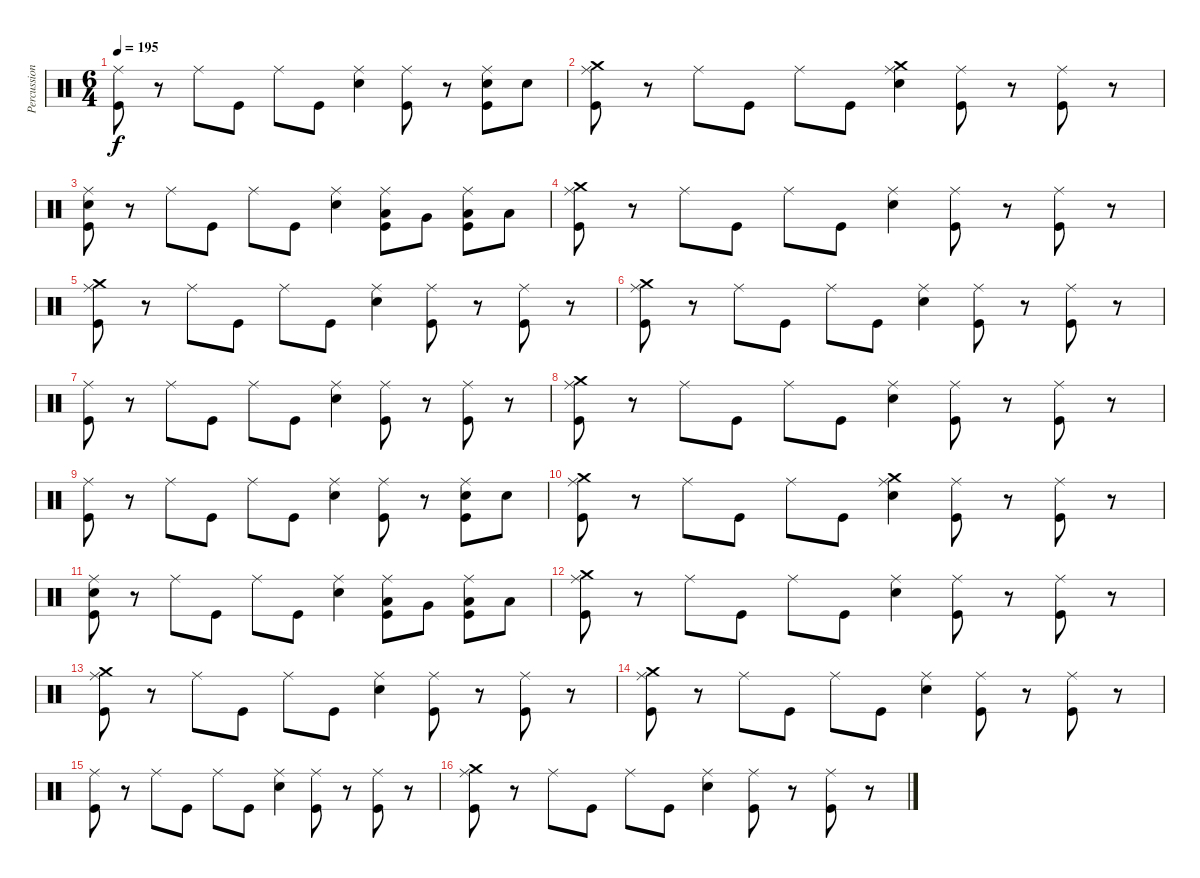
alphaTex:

\track ("Percussion" "Percussion") {instrument percussion}
\staff {score}
\articulation defaults
\ts (6 4)
\tempo 195
\clef neutral
\ks c
("Ride (middle)" "Kick (hit)").8{dy f} r.8 "Ride (middle)".8 "Kick (hit)".8 "Ride (middle)".8 "Kick (hit)".8 ("Ride (middle)" "Electric Snare (hit)").4 ("Ride (middle)" "Kick (hit)").8 r.8 ("Ride (middle)" "Electric Snare (hit)" "Kick (hit)").8 "Electric Snare (hit)".8 |
("Crash medium (hit)" "Ride (middle)" "Kick (hit)").8 r.8 "Ride (middle)".8 "Kick (hit)".8 "Ride (middle)".8 "Kick (hit)".8 ("Crash medium (hit)" "Ride (middle)" "Electric Snare (hit)").4 ("Ride (middle)" "Kick (hit)").8 r.8 ("Ride (middle)" "Kick (hit)").8 r.8 |
("Snare (hit)" "Ride (middle)" "Kick (hit)").8 r.8 "Ride (middle)".8 "Kick (hit)".8 "Ride (middle)".8 "Kick (hit)".8 ("Ride (middle)" "Electric Snare (hit)").4 ("Low Tom (hit)" "Ride (middle)" "Kick (hit)").8 "Very Low Tom (hit)".8 ("Low Floor Tom (hit)" "Ride (middle)" "Kick (hit)").8 "Low Floor Tom (hit)".8 |
("Crash medium (hit)" "Ride (middle)" "Kick (hit)").8 r.8 "Ride (middle)".8 "Kick (hit)".8 "Ride (middle)".8 "Kick (hit)".8 ("Ride (middle)" "Electric Snare (hit)").4 ("Ride (middle)" "Kick (hit)").8 r.8 ("Ride (middle)" "Kick (hit)").8 r.8 |
("Crash medium (hit)" "Ride (middle)" "Kick (hit)").8 r.8 "Ride (middle)".8 "Kick (hit)".8 "Ride (middle)".8 "Kick (hit)".8 ("Ride (middle)" "Electric Snare (hit)").4 ("Ride (middle)" "Kick (hit)").8 r.8 ("Ride (middle)" "Kick (hit)").8 r.8 |
("Crash medium (hit)" "Ride (middle)" "Kick (hit)").8 r.8 "Ride (middle)".8 "Kick (hit)".8 "Ride (middle)".8 "Kick (hit)".8 ("Ride (middle)" "Electric Snare (hit)").4 ("Ride (middle)" "Kick (hit)").8 r.8 ("Ride (middle)" "Kick (hit)").8 r.8 |
("Ride (middle)" "Kick (hit)").8 r.8 "Ride (middle)".8 "Kick (hit)".8 "Ride (middle)".8 "Kick (hit)".8 ("Ride (middle)" "Electric Snare (hit)").4 ("Ride (middle)" "Kick (hit)").8 r.8 ("Ride (middle)" "Kick (hit)").8 r.8 |
("Crash medium (hit)" "Ride (middle)" "Kick (hit)").8 r.8 "Ride (middle)".8 "Kick (hit)".8 "Ride (middle)".8 "Kick (hit)".8 ("Ride (middle)" "Electric Snare (hit)").4 ("Ride (middle)" "Kick (hit)").8 r.8 ("Ride (middle)" "Kick (hit)").8 r.8 |
("Ride (middle)" "Kick (hit)").8 r.8 "Ride (middle)".8 "Kick (hit)".8 "Ride (middle)".8 "Kick (hit)".8 ("Ride (middle)" "Electric Snare (hit)").4 ("Ride (middle)" "Kick (hit)").8 r.8 ("Ride (middle)" "Electric Snare (hit)" "Kick (hit)").8 "Electric Snare (hit)".8 |
("Crash medium (hit)" "Ride (middle)" "Kick (hit)").8 r.8 "Ride (middle)".8 "Kick (hit)".8 "Ride (middle)".8 "Kick (hit)".8 ("Crash medium (hit)" "Ride (middle)" "Electric Snare (hit)").4 ("Ride (middle)" "Kick (hit)").8 r.8 ("Ride (middle)" "Kick (hit)").8 r.8 |
("Snare (hit)" "Ride (middle)" "Kick (hit)").8 r.8 "Ride (middle)".8 "Kick (hit)".8 "Ride (middle)".8 "Kick (hit)".8 ("Ride (middle)" "Electric Snare (hit)").4 ("Low Tom (hit)" "Ride (middle)" "Kick (hit)").8 "Very Low Tom (hit)".8 ("Low Floor Tom (hit)" "Ride (middle)" "Kick (hit)").8 "Low Floor Tom (hit)".8 |
("Crash medium (hit)" "Ride (middle)" "Kick (hit)").8 r.8 "Ride (middle)".8 "Kick (hit)".8 "Ride (middle)".8 "Kick (hit)".8 ("Ride (middle)" "Electric Snare (hit)").4 ("Ride (middle)" "Kick (hit)").8 r.8 ("Ride (middle)" "Kick (hit)").8 r.8 |
("Crash medium (hit)" "Ride (middle)" "Kick (hit)").8 r.8 "Ride (middle)".8 "Kick (hit)".8 "Ride (middle)".8 "Kick (hit)".8 ("Ride (middle)" "Electric Snare (hit)").4 ("Ride (middle)" "Kick (hit)").8 r.8 ("Ride (middle)" "Kick (hit)").8 r.8 |
("Crash medium (hit)" "Ride (middle)" "Kick (hit)").8 r.8 "Ride (middle)".8 "Kick (hit)".8 "Ride (middle)".8 "Kick (hit)".8 ("Ride (middle)" "Electric Snare (hit)").4 ("Ride (middle)" "Kick (hit)").8 r.8 ("Ride (middle)" "Kick (hit)").8 r.8 |
("Ride (middle)" "Kick (hit)").8 r.8 "Ride (middle)".8 "Kick (hit)".8 "Ride (middle)".8 "Kick (hit)".8 ("Ride (middle)" "Electric Snare (hit)").4 ("Ride (middle)" "Kick (hit)").8 r.8 ("Ride (middle)" "Kick (hit)").8 r.8 |
("Crash medium (hit)" "Ride (middle)" "Kick (hit)").8 r.8 "Ride (middle)".8 "Kick (hit)".8 "Ride (middle)".8 "Kick (hit)".8 ("Ride (middle)" "Electric Snare (hit)").4 ("Ride (middle)" "Kick (hit)").8 r.8 ("Ride (middle)" "Kick (hit)").8 r.8
